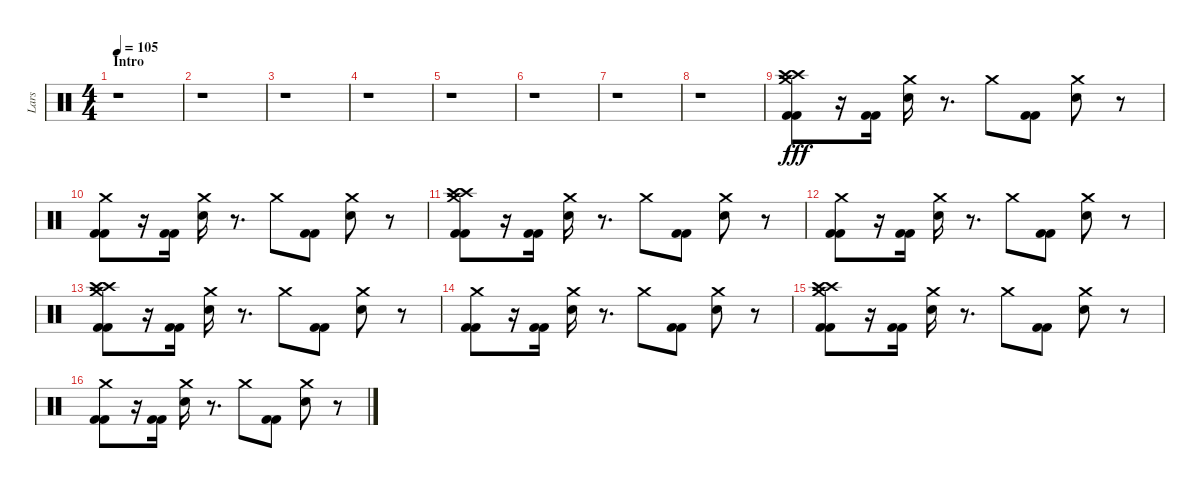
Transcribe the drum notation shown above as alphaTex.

\track ("Lars" "Lars") {instrument percussion}
\staff {score}
\articulation defaults
\ts (4 4)
\section ("" "Intro")
\tempo 105
\clef neutral
\ks c
r.1{dy fff} |
r.1 |
r.1 |
r.1 |
r.1 |
r.1 |
r.1 |
r.1 |
("Crash high (hit)" "Crash high (hit)" "Crash medium (hit)" "Kick (hit) 2" "Kick (hit) 2").8 r.16 ("Kick (hit) 2" "Kick (hit) 2").16 ("Crash medium (hit)" "Electric Snare (hit)").16 r.8{d} "Crash medium (hit)".8 ("Kick (hit) 2" "Kick (hit) 2").8 ("Crash medium (hit)" "Electric Snare (hit)").8 r.8 |
("Crash medium (hit)" "Kick (hit) 2" "Kick (hit) 2").8 r.16 ("Kick (hit) 2" "Kick (hit) 2").16 ("Crash medium (hit)" "Electric Snare (hit)").16 r.8{d} "Crash medium (hit)".8 ("Kick (hit) 2" "Kick (hit) 2").8 ("Crash medium (hit)" "Electric Snare (hit)").8 r.8 |
("Crash high (hit)" "Crash high (hit)" "Crash medium (hit)" "Kick (hit) 2" "Kick (hit) 2").8 r.16 ("Kick (hit) 2" "Kick (hit) 2").16 ("Crash medium (hit)" "Electric Snare (hit)").16 r.8{d} "Crash medium (hit)".8 ("Kick (hit) 2" "Kick (hit) 2").8 ("Crash medium (hit)" "Electric Snare (hit)").8 r.8 |
("Crash medium (hit)" "Kick (hit) 2" "Kick (hit) 2").8 r.16 ("Kick (hit) 2" "Kick (hit) 2").16 ("Crash medium (hit)" "Electric Snare (hit)").16 r.8{d} "Crash medium (hit)".8 ("Kick (hit) 2" "Kick (hit) 2").8 ("Crash medium (hit)" "Electric Snare (hit)").8 r.8 |
("Crash high (hit)" "Crash high (hit)" "Crash medium (hit)" "Kick (hit) 2" "Kick (hit) 2").8 r.16 ("Kick (hit) 2" "Kick (hit) 2").16 ("Crash medium (hit)" "Electric Snare (hit)").16 r.8{d} "Crash medium (hit)".8 ("Kick (hit) 2" "Kick (hit) 2").8 ("Crash medium (hit)" "Electric Snare (hit)").8 r.8 |
("Crash medium (hit)" "Kick (hit) 2" "Kick (hit) 2").8 r.16 ("Kick (hit) 2" "Kick (hit) 2").16 ("Crash medium (hit)" "Electric Snare (hit)").16 r.8{d} "Crash medium (hit)".8 ("Kick (hit) 2" "Kick (hit) 2").8 ("Crash medium (hit)" "Electric Snare (hit)").8 r.8 |
("Crash high (hit)" "Crash high (hit)" "Crash medium (hit)" "Kick (hit) 2" "Kick (hit) 2").8 r.16 ("Kick (hit) 2" "Kick (hit) 2").16 ("Crash medium (hit)" "Electric Snare (hit)").16 r.8{d} "Crash medium (hit)".8 ("Kick (hit) 2" "Kick (hit) 2").8 ("Crash medium (hit)" "Electric Snare (hit)").8 r.8 |
("Crash medium (hit)" "Kick (hit) 2" "Kick (hit) 2").8 r.16 ("Kick (hit) 2" "Kick (hit) 2").16 ("Crash medium (hit)" "Electric Snare (hit)").16 r.8{d} "Crash medium (hit)".8 ("Kick (hit) 2" "Kick (hit) 2").8 ("Crash medium (hit)" "Electric Snare (hit)").8 r.8
